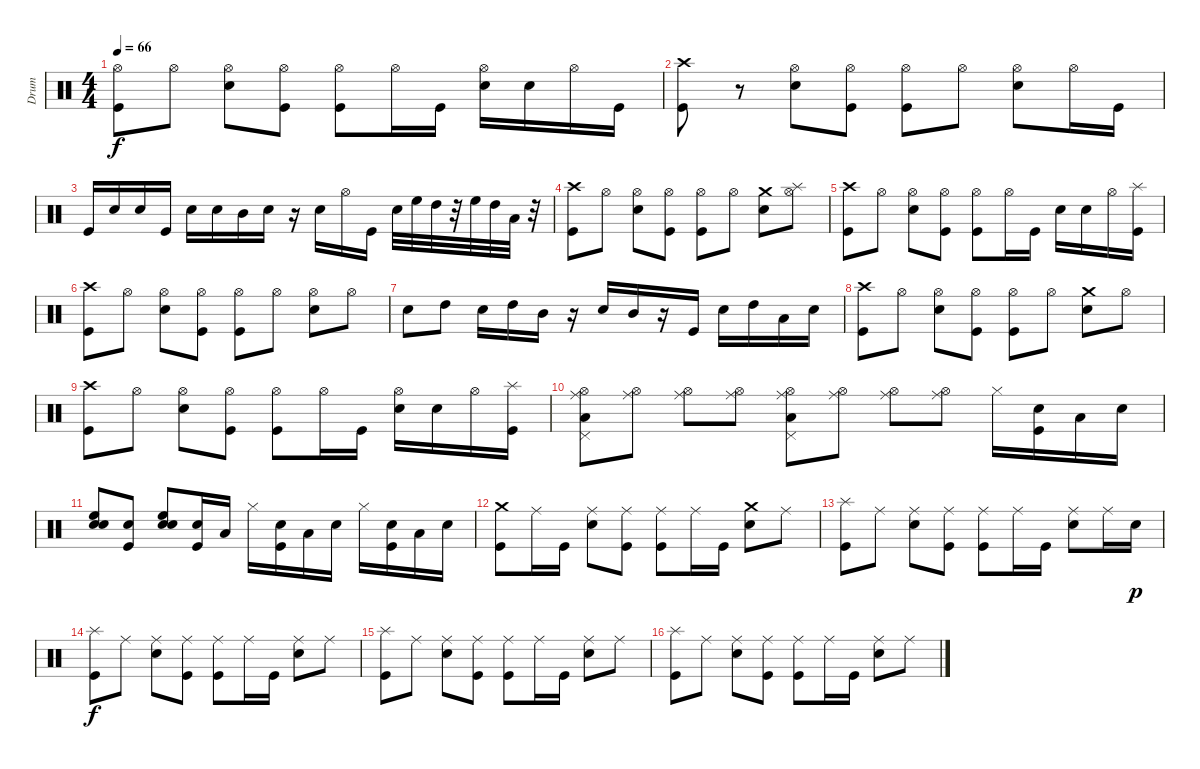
\track ("Drum" "Drum") {instrument percussion}
\staff {score}
\articulation defaults
\ts (4 4)
\tempo 66
\clef neutral
\ks c
("Hi-Hat (open)" "Kick (hit)").8{dy f} "Hi-Hat (open)".8 ("Hi-Hat (open)" "Snare (hit) 2").8 ("Hi-Hat (open)" "Kick (hit)").8 ("Hi-Hat (open)" "Kick (hit)").8 "Hi-Hat (open)".16 "Kick (hit)".16 ("Hi-Hat (open)" "Snare (hit) 2").16 "Snare (hit) 2".16 "Hi-Hat (open)".16 "Kick (hit)".16 |
("Crash high (hit)" "Kick (hit)").8 r.8 ("Hi-Hat (open)" "Snare (hit) 2").8 ("Hi-Hat (open)" "Kick (hit)").8 ("Hi-Hat (open)" "Kick (hit)").8 "Hi-Hat (open)".8 ("Hi-Hat (open)" "Snare (hit) 2").8 "Hi-Hat (open)".16 "Kick (hit)".16 |
"Kick (hit)".16 "Snare (hit) 2".16 "Snare (hit) 2".16 "Kick (hit)".16 "Snare (hit) 2".16 "Snare (hit) 2".16 "Mid Tom (hit)".16 "Snare (hit) 2".16 r.16 "Snare (hit) 2".16 "Hi-Hat (open)".16 "Kick (hit)".16 "Snare (hit) 2".32 "High Floor Tom (hit)".32 "High Tom (hit)".32 r.32 "High Floor Tom (hit)".32 "High Tom (hit)".32 "Low Tom (hit)".32 r.32 |
("Crash high (hit)" "Kick (hit)").8 "Hi-Hat (open)".8 ("Hi-Hat (open)" "Snare (hit) 2").8 ("Hi-Hat (open)" "Kick (hit)").8 ("Hi-Hat (open)" "Kick (hit)").8 "Hi-Hat (open)".8 ("Crash medium (hit)" "Snare (hit) 2").8 ("Hi-Hat (open)" "Splash (hit)").8 |
("Crash high (hit)" "Kick (hit)").8 "Hi-Hat (open)".8 ("Hi-Hat (open)" "Snare (hit) 2").8 ("Hi-Hat (open)" "Kick (hit)").8 ("Hi-Hat (open)" "Kick (hit)").8 "Hi-Hat (open)".16 "Kick (hit)".16 "Snare (hit) 2".16 "Snare (hit) 2".16 "Hi-Hat (open)".16 ("Splash (hit)" "Kick (hit)").16 |
("Crash high (hit)" "Kick (hit)").8 "Hi-Hat (open)".8 ("Hi-Hat (open)" "Snare (hit) 2").8 ("Hi-Hat (open)" "Kick (hit)").8 ("Hi-Hat (open)" "Kick (hit)").8 "Hi-Hat (open)".8 ("Hi-Hat (open)" "Snare (hit) 2").8 "Hi-Hat (open)".8 |
"Snare (hit) 2".8 "High Tom (hit)".8 "Snare (hit) 2".16 "High Tom (hit)".16 "Mid Tom (hit)".16 r.16 "Snare (hit) 2".16 "Mid Tom (hit)".16 r.16 "Kick (hit)".16 "Snare (hit) 2".16 "High Tom (hit)".16 "Low Tom (hit)".16 "Snare (hit) 2".16 |
("Crash high (hit)" "Kick (hit)").8 "Hi-Hat (open)".8 ("Hi-Hat (open)" "Snare (hit) 2").8 ("Hi-Hat (open)" "Kick (hit)").8 ("Hi-Hat (open)" "Kick (hit)").8 "Hi-Hat (open)".8 ("Crash medium (hit)" "Snare (hit) 2").8 "Hi-Hat (open)".8 |
("Crash high (hit)" "Kick (hit)").8 "Hi-Hat (open)".8 ("Hi-Hat (open)" "Snare (hit) 2").8 ("Hi-Hat (open)" "Kick (hit)").8 ("Hi-Hat (open)" "Kick (hit)").8 "Hi-Hat (open)".16 "Kick (hit)".16 ("Hi-Hat (open)" "Snare (hit) 2").16 "Snare (hit) 2".16 "Hi-Hat (open)".16 ("Splash (hit)" "Kick (hit)").16 |
("Pedal Hi-Hat (hit)" "Low Tom (hit)" "Hi-Hat (open)" "Ride (middle)").8 ("Ride (middle)" "Hi-Hat (open)").8 ("Hi-Hat (open)" "Ride (middle)").8 ("Hi-Hat (open)" "Ride (middle)").8 ("Pedal Hi-Hat (hit)" "Low Tom (hit)" "Hi-Hat (open)" "Ride (middle)").8 ("Ride (middle)" "Hi-Hat (open)").8 ("Hi-Hat (open)" "Ride (middle)").8 ("Hi-Hat (open)" "Ride (middle)").8 "Hi-Hat (closed)".16 ("Snare (hit) 2" "Kick (hit)").16 "Low Tom (hit)".16 "Snare (hit) 2".16 |
("High Floor Tom (hit)" "Snare (hit) 2" "Electric Snare (hit)").8 ("Kick (hit)" "Snare (hit) 2").8 ("High Floor Tom (hit)" "Snare (hit) 2" "Electric Snare (hit)").8 ("Kick (hit)" "Snare (hit) 2").16 "Low Tom (hit)".16 "Hi-Hat (closed)".16 ("Snare (hit) 2" "Kick (hit)").16 "Low Tom (hit)".16 "Snare (hit) 2".16 "Hi-Hat (closed)".16 ("Snare (hit) 2" "Kick (hit)").16 "Low Tom (hit)".16 "Snare (hit) 2".16 |
("Crash medium (hit)" "Kick (hit)").8 "Ride (middle)".16 "Kick (hit)".16 ("Ride (middle)" "Snare (hit) 2").8 ("Ride (middle)" "Kick (hit)").8 ("Ride (middle)" "Kick (hit)").8 "Ride (middle)".16 "Kick (hit)".16 ("Crash medium (hit)" "Snare (hit) 2").8 "Ride (middle)".8 |
("Splash (hit)" "Kick (hit)").8 "Ride (middle)".8 ("Ride (middle)" "Snare (hit) 2").8 ("Ride (middle)" "Kick (hit)").8 ("Ride (middle)" "Kick (hit)").8 "Ride (middle)".16 "Kick (hit)".16 ("Ride (middle)" "Snare (hit) 2").8 "Ride (middle)".16 "Snare (hit) 2".16{dy p} |
("Splash (hit)" "Kick (hit)").8{dy f} "Ride (middle)".8 ("Ride (middle)" "Snare (hit) 2").8 ("Ride (middle)" "Kick (hit)").8 ("Ride (middle)" "Kick (hit)").8 "Ride (middle)".16 "Kick (hit)".16 ("Ride (middle)" "Snare (hit) 2").8 "Ride (middle)".8 |
("Splash (hit)" "Kick (hit)").8 "Ride (middle)".8 ("Ride (middle)" "Snare (hit) 2").8 ("Ride (middle)" "Kick (hit)").8 ("Ride (middle)" "Kick (hit)").8 "Ride (middle)".16 "Kick (hit)".16 ("Ride (middle)" "Snare (hit) 2").8 "Ride (middle)".8 |
("Splash (hit)" "Kick (hit)").8 "Ride (middle)".8 ("Ride (middle)" "Snare (hit) 2").8 ("Ride (middle)" "Kick (hit)").8 ("Ride (middle)" "Kick (hit)").8 "Ride (middle)".16 "Kick (hit)".16 ("Ride (middle)" "Snare (hit) 2").8 "Ride (middle)".8
